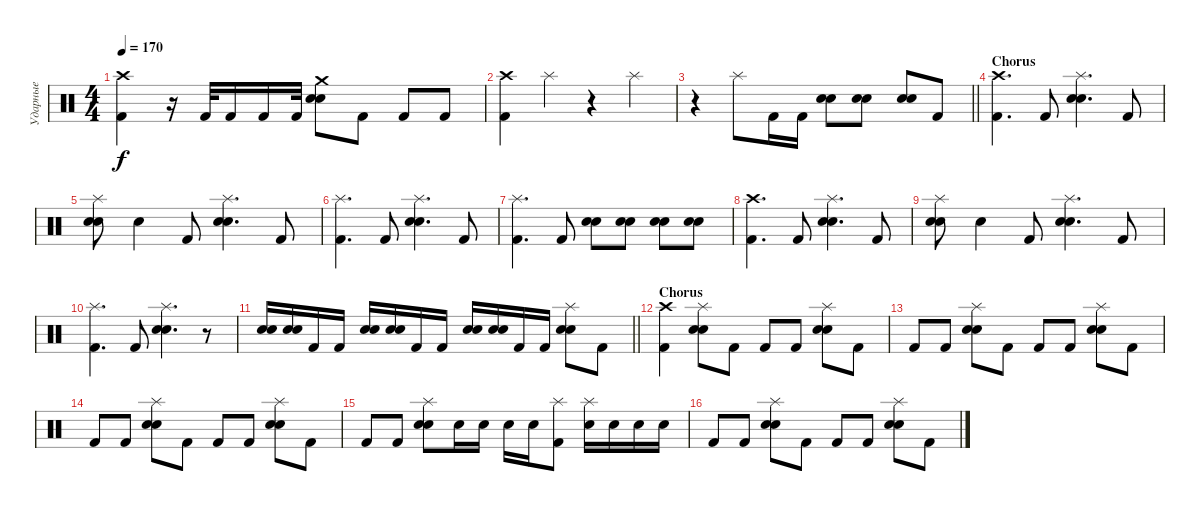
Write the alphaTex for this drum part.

\track ("Ударные" "Ударные") {instrument percussion}
\staff {score}
\articulation defaults
\ts (4 4)
\tempo 170
\clef neutral
\ks c
("Crash high (hit)" "Kick (hit) 2").4{dy f} r.16 "Kick (hit) 2".32 "Kick (hit) 2".16 "Kick (hit) 2".16 "Kick (hit) 2".32 ("Crash medium (hit)" "Electric Snare (hit)" "Snare (hit) 2").8 "Kick (hit) 2".8 "Kick (hit) 2".8 "Kick (hit) 2".8 |
("Crash high (hit)" "Kick (hit) 2").4 "Splash (hit)".4 r.4 "Splash (hit)".4 |
\barLineRight lightlight
r.4 "Splash (hit)".8 "Kick (hit) 2".16 "Kick (hit) 2".16 ("Electric Snare (hit)" "Snare (hit) 2").8 ("Electric Snare (hit)" "Snare (hit) 2").8 ("Electric Snare (hit)" "Snare (hit) 2").8 "Kick (hit) 2".8 |
\section ("" "Chorus")
("Crash high (hit)" "Kick (hit) 2").4{d} "Kick (hit) 2".8 ("Splash (hit)" "Electric Snare (hit)" "Snare (hit) 2").4{d} "Kick (hit) 2".8 |
("Splash (hit)" "Electric Snare (hit)" "Snare (hit) 2").8 "Electric Snare (hit)".4 "Kick (hit) 2".8 ("Splash (hit)" "Electric Snare (hit)" "Snare (hit) 2").4{d} "Kick (hit) 2".8 |
("Splash (hit)" "Kick (hit) 2").4{d} "Kick (hit) 2".8 ("Splash (hit)" "Electric Snare (hit)" "Snare (hit) 2").4{d} "Kick (hit) 2".8 |
("Splash (hit)" "Kick (hit) 2").4{d} "Kick (hit) 2".8 ("Electric Snare (hit)" "Snare (hit) 2").8 ("Electric Snare (hit)" "Snare (hit) 2").8 ("Electric Snare (hit)" "Snare (hit) 2").8 ("Electric Snare (hit)" "Snare (hit) 2").8 |
("Crash high (hit)" "Kick (hit) 2").4{d} "Kick (hit) 2".8 ("Splash (hit)" "Electric Snare (hit)" "Snare (hit) 2").4{d} "Kick (hit) 2".8 |
("Splash (hit)" "Electric Snare (hit)" "Snare (hit) 2").8 "Electric Snare (hit)".4 "Kick (hit) 2".8 ("Splash (hit)" "Electric Snare (hit)" "Snare (hit) 2").4{d} "Kick (hit) 2".8 |
("Splash (hit)" "Kick (hit) 2").4{d} "Kick (hit) 2".8 ("Splash (hit)" "Electric Snare (hit)" "Snare (hit) 2").4{d} r.8 |
\barLineRight lightlight
("Electric Snare (hit)" "Snare (hit) 2").16 ("Electric Snare (hit)" "Snare (hit) 2").16 "Kick (hit) 2".16 "Kick (hit) 2".16 ("Electric Snare (hit)" "Snare (hit) 2").16 ("Electric Snare (hit)" "Snare (hit) 2").16 "Kick (hit) 2".16 "Kick (hit) 2".16 ("Electric Snare (hit)" "Snare (hit) 2").16 ("Electric Snare (hit)" "Snare (hit) 2").16 "Kick (hit) 2".16 "Kick (hit) 2".16 ("Splash (hit)" "Electric Snare (hit)" "Snare (hit) 2").8 "Kick (hit) 2".8 |
\section ("" "Chorus")
("Crash high (hit)" "Kick (hit) 2").4 ("Splash (hit)" "Electric Snare (hit)" "Snare (hit) 2").8 "Kick (hit) 2".8 "Kick (hit) 2".8 "Kick (hit) 2".8 ("Splash (hit)" "Electric Snare (hit)" "Snare (hit) 2").8 "Kick (hit) 2".8 |
"Kick (hit) 2".8 "Kick (hit) 2".8 ("Splash (hit)" "Electric Snare (hit)" "Snare (hit) 2").8 "Kick (hit) 2".8 "Kick (hit) 2".8 "Kick (hit) 2".8 ("Splash (hit)" "Electric Snare (hit)" "Snare (hit) 2").8 "Kick (hit) 2".8 |
"Kick (hit) 2".8 "Kick (hit) 2".8 ("Splash (hit)" "Electric Snare (hit)" "Snare (hit) 2").8 "Kick (hit) 2".8 "Kick (hit) 2".8 "Kick (hit) 2".8 ("Splash (hit)" "Electric Snare (hit)" "Snare (hit) 2").8 "Kick (hit) 2".8 |
"Kick (hit) 2".8 "Kick (hit) 2".8 ("Splash (hit)" "Electric Snare (hit)" "Snare (hit) 2").8 "Electric Snare (hit)".16 "Electric Snare (hit)".16 "Electric Snare (hit)".16 "Electric Snare (hit)".16 ("Splash (hit)" "Kick (hit) 2").8 ("Splash (hit)" "Electric Snare (hit)").16 "Electric Snare (hit)".16 "Electric Snare (hit)".16 "Electric Snare (hit)".16 |
"Kick (hit) 2".8 "Kick (hit) 2".8 ("Splash (hit)" "Electric Snare (hit)" "Snare (hit) 2").8 "Kick (hit) 2".8 "Kick (hit) 2".8 "Kick (hit) 2".8 ("Splash (hit)" "Electric Snare (hit)" "Snare (hit) 2").8 "Kick (hit) 2".8
